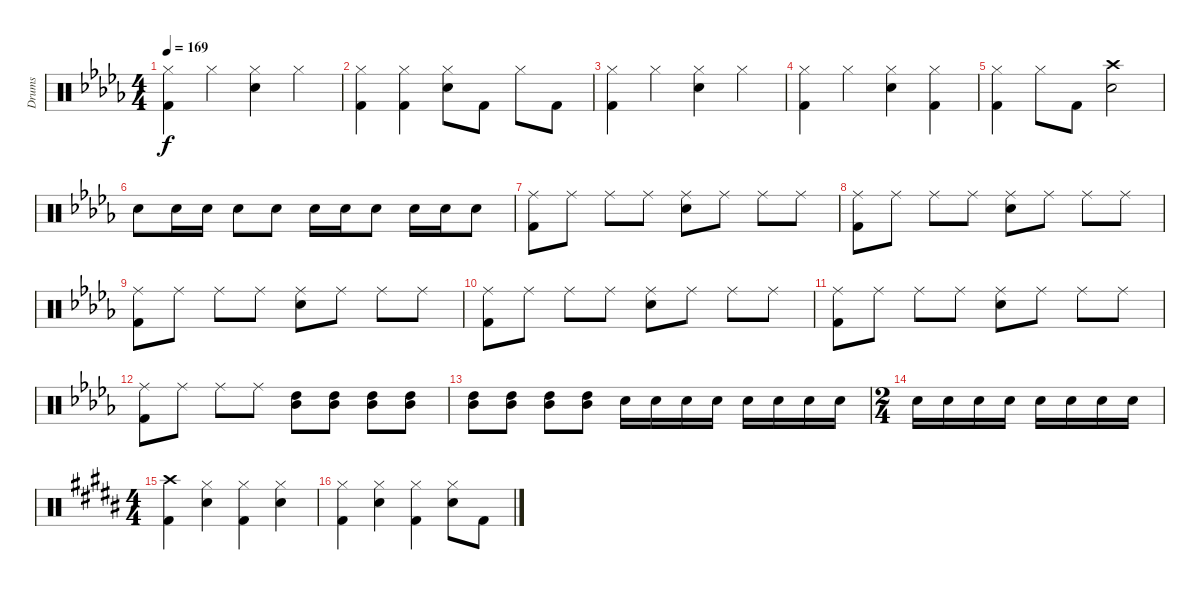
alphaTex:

\track ("Drums" "Drums") {instrument percussion}
\staff {score}
\articulation defaults
\ts (4 4)
\tempo 169
\clef neutral
\ks db
("Hi-Hat (closed)" "Kick (hit) 2").4{dy f} "Hi-Hat (closed)".4 ("Hi-Hat (closed)" "Snare (hit) 2").4 "Hi-Hat (closed)".4 |
("Hi-Hat (closed)" "Kick (hit) 2").4 ("Hi-Hat (closed)" "Kick (hit) 2").4 ("Hi-Hat (closed)" "Snare (hit) 2").8 "Kick (hit) 2".8 "Hi-Hat (closed)".8 "Kick (hit) 2".8 |
("Hi-Hat (closed)" "Kick (hit) 2").4 "Hi-Hat (closed)".4 ("Hi-Hat (closed)" "Snare (hit) 2").4 "Hi-Hat (closed)".4 |
("Hi-Hat (closed)" "Kick (hit) 2").4 "Hi-Hat (closed)".4 ("Hi-Hat (closed)" "Snare (hit) 2").4 ("Hi-Hat (closed)" "Kick (hit) 2").4 |
("Hi-Hat (closed)" "Kick (hit) 2").4 "Hi-Hat (closed)".8 "Kick (hit) 2".8 ("Crash high (hit)" "Snare (hit) 2").2 |
"Snare (hit) 2".8 "Snare (hit) 2".16 "Snare (hit) 2".16 "Snare (hit) 2".8 "Snare (hit) 2".8 "Snare (hit) 2".16 "Snare (hit) 2".16 "Snare (hit) 2".8 "Snare (hit) 2".16 "Snare (hit) 2".16 "Snare (hit) 2".8 |
("Ride (middle)" "Kick (hit) 2").8 "Ride (middle)".8 "Ride (middle)".8 "Ride (middle)".8 ("Ride (middle)" "Snare (hit) 2").8 "Ride (middle)".8 "Ride (middle)".8 "Ride (middle)".8 |
("Ride (middle)" "Kick (hit) 2").8 "Ride (middle)".8 "Ride (middle)".8 "Ride (middle)".8 ("Ride (middle)" "Snare (hit) 2").8 "Ride (middle)".8 "Ride (middle)".8 "Ride (middle)".8 |
("Ride (middle)" "Kick (hit) 2").8 "Ride (middle)".8 "Ride (middle)".8 "Ride (middle)".8 ("Ride (middle)" "Snare (hit) 2").8 "Ride (middle)".8 "Ride (middle)".8 "Ride (middle)".8 |
("Ride (middle)" "Kick (hit) 2").8 "Ride (middle)".8 "Ride (middle)".8 "Ride (middle)".8 ("Ride (middle)" "Snare (hit) 2").8 "Ride (middle)".8 "Ride (middle)".8 "Ride (middle)".8 |
("Ride (middle)" "Kick (hit) 2").8 "Ride (middle)".8 "Ride (middle)".8 "Ride (middle)".8 ("Ride (middle)" "Snare (hit) 2").8 "Ride (middle)".8 "Ride (middle)".8 "Ride (middle)".8 |
("Ride (middle)" "Kick (hit) 2").8 "Ride (middle)".8 "Ride (middle)".8 "Ride (middle)".8 ("Mid Tom (hit)" "High Tom (hit)").8 ("Mid Tom (hit)" "High Tom (hit)").8 ("Mid Tom (hit)" "High Tom (hit)").8 ("Mid Tom (hit)" "High Tom (hit)").8 |
("Mid Tom (hit)" "High Tom (hit)").8 ("Mid Tom (hit)" "High Tom (hit)").8 ("Mid Tom (hit)" "High Tom (hit)").8 ("Mid Tom (hit)" "High Tom (hit)").8 "Snare (hit) 2".16 "Snare (hit) 2".16 "Snare (hit) 2".16 "Snare (hit) 2".16 "Snare (hit) 2".16 "Snare (hit) 2".16 "Snare (hit) 2".16 "Snare (hit) 2".16 |
\ts (2 4)
"Snare (hit) 2".16 "Snare (hit) 2".16 "Snare (hit) 2".16 "Snare (hit) 2".16 "Snare (hit) 2".16 "Snare (hit) 2".16 "Snare (hit) 2".16 "Snare (hit) 2".16 |
\ts (4 4)
\ks b
("Crash high (hit)" "Kick (hit) 2").4 ("Hi-Hat (closed)" "Snare (hit) 2").4 ("Hi-Hat (closed)" "Kick (hit) 2").4 ("Hi-Hat (closed)" "Snare (hit) 2").4 |
("Hi-Hat (closed)" "Kick (hit) 2").4 ("Hi-Hat (closed)" "Snare (hit) 2").4 ("Hi-Hat (closed)" "Kick (hit) 2").4 ("Hi-Hat (closed)" "Snare (hit) 2").8 "Kick (hit) 2".8
